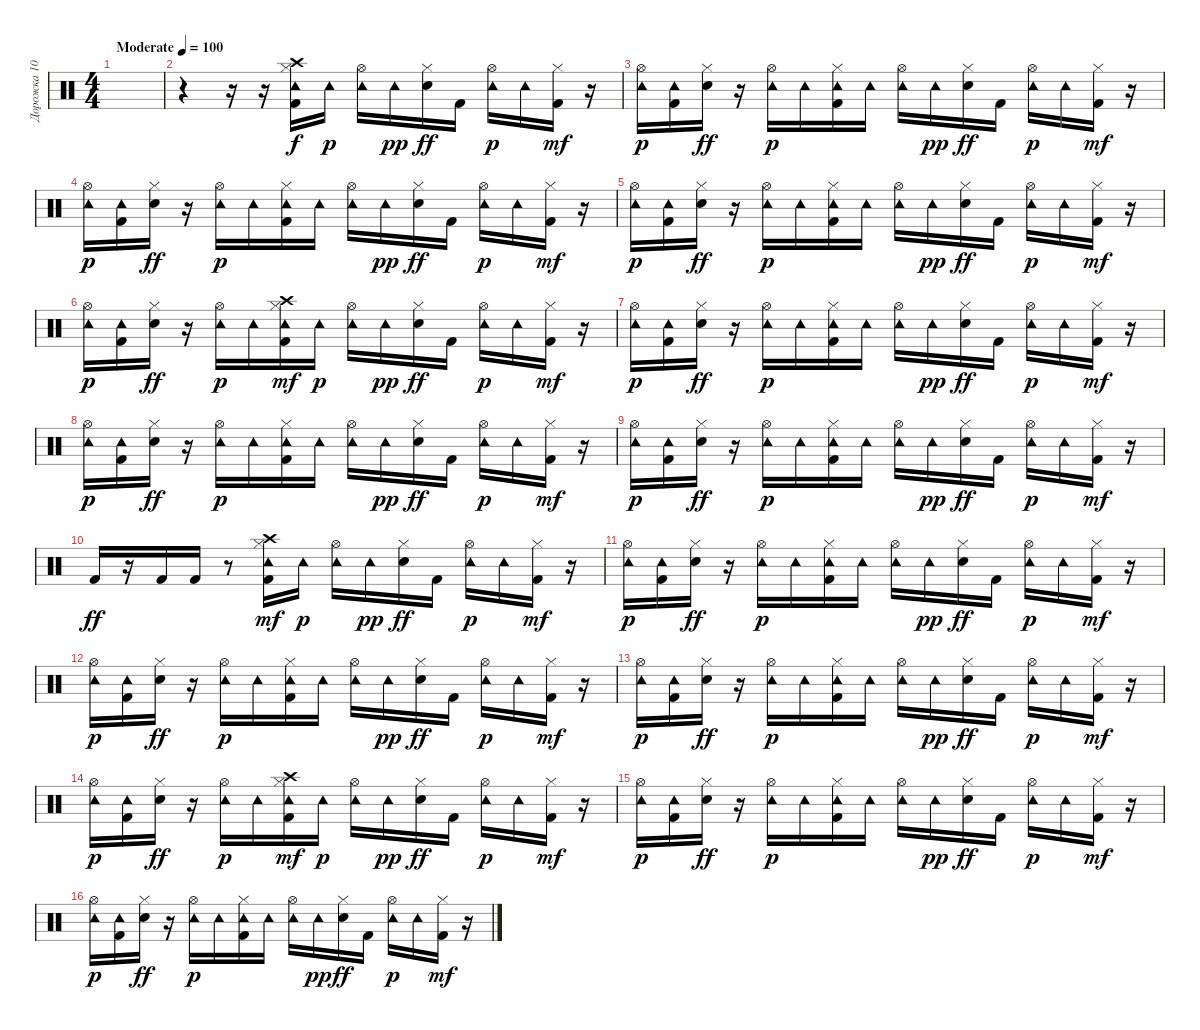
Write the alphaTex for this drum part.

\track ("Дорожка 10" "Дорожка 10") {instrument percussion}
\staff {score}
\articulation defaults
\ts (4 4)
\tempo (100 "Moderate")
\clef neutral
\ks c
|
r.4 r.16 r.16 ("Kick (hit) 2" "Hi-Hat (closed)" "Tambourine (hit)" "Crash high (hit)").16 "Tambourine (hit)".16{dy p} ("Hi-Hat (open)" "Tambourine (hit)").16 "Tambourine (hit)".16{dy pp} ("Hi-Hat (closed)" "Snare (hit) 2").16{dy ff} "Kick (hit) 2".16 ("Hi-Hat (open)" "Tambourine (hit)").16{dy p} "Tambourine (hit)".16 ("Kick (hit) 2" "Hi-Hat (closed)").16{dy mf} r.16 |
("Hi-Hat (open)" "Tambourine (hit)").16{dy p} ("Kick (hit) 2" "Tambourine (hit)").16 ("Hi-Hat (closed)" "Snare (hit) 2").16{dy ff} r.16 ("Hi-Hat (open)" "Tambourine (hit)").16{dy p} "Tambourine (hit)".16 ("Kick (hit) 2" "Hi-Hat (closed)" "Tambourine (hit)").16 "Tambourine (hit)".16 ("Hi-Hat (open)" "Tambourine (hit)").16 "Tambourine (hit)".16{dy pp} ("Hi-Hat (closed)" "Snare (hit) 2").16{dy ff} "Kick (hit) 2".16 ("Hi-Hat (open)" "Tambourine (hit)").16{dy p} "Tambourine (hit)".16 ("Kick (hit) 2" "Hi-Hat (closed)").16{dy mf} r.16 |
("Hi-Hat (open)" "Tambourine (hit)").16{dy p} ("Kick (hit) 2" "Tambourine (hit)").16 ("Hi-Hat (closed)" "Snare (hit) 2").16{dy ff} r.16 ("Hi-Hat (open)" "Tambourine (hit)").16{dy p} "Tambourine (hit)".16 ("Kick (hit) 2" "Hi-Hat (closed)" "Tambourine (hit)").16 "Tambourine (hit)".16 ("Hi-Hat (open)" "Tambourine (hit)").16 "Tambourine (hit)".16{dy pp} ("Hi-Hat (closed)" "Snare (hit) 2").16{dy ff} "Kick (hit) 2".16 ("Hi-Hat (open)" "Tambourine (hit)").16{dy p} "Tambourine (hit)".16 ("Kick (hit) 2" "Hi-Hat (closed)").16{dy mf} r.16 |
("Hi-Hat (open)" "Tambourine (hit)").16{dy p} ("Kick (hit) 2" "Tambourine (hit)").16 ("Hi-Hat (closed)" "Snare (hit) 2").16{dy ff} r.16 ("Hi-Hat (open)" "Tambourine (hit)").16{dy p} "Tambourine (hit)".16 ("Kick (hit) 2" "Hi-Hat (closed)" "Tambourine (hit)").16 "Tambourine (hit)".16 ("Hi-Hat (open)" "Tambourine (hit)").16 "Tambourine (hit)".16{dy pp} ("Hi-Hat (closed)" "Snare (hit) 2").16{dy ff} "Kick (hit) 2".16 ("Hi-Hat (open)" "Tambourine (hit)").16{dy p} "Tambourine (hit)".16 ("Kick (hit) 2" "Hi-Hat (closed)").16{dy mf} r.16 |
("Hi-Hat (open)" "Tambourine (hit)").16{dy p} ("Kick (hit) 2" "Tambourine (hit)").16 ("Hi-Hat (closed)" "Snare (hit) 2").16{dy ff} r.16 ("Hi-Hat (open)" "Tambourine (hit)").16{dy p} "Tambourine (hit)".16 ("Kick (hit) 2" "Hi-Hat (closed)" "Tambourine (hit)" "Crash high (hit)").16{dy mf} "Tambourine (hit)".16{dy p} ("Hi-Hat (open)" "Tambourine (hit)").16 "Tambourine (hit)".16{dy pp} ("Hi-Hat (closed)" "Snare (hit) 2").16{dy ff} "Kick (hit) 2".16 ("Hi-Hat (open)" "Tambourine (hit)").16{dy p} "Tambourine (hit)".16 ("Kick (hit) 2" "Hi-Hat (closed)").16{dy mf} r.16 |
("Hi-Hat (open)" "Tambourine (hit)").16{dy p} ("Kick (hit) 2" "Tambourine (hit)").16 ("Hi-Hat (closed)" "Snare (hit) 2").16{dy ff} r.16 ("Hi-Hat (open)" "Tambourine (hit)").16{dy p} "Tambourine (hit)".16 ("Kick (hit) 2" "Hi-Hat (closed)" "Tambourine (hit)").16 "Tambourine (hit)".16 ("Hi-Hat (open)" "Tambourine (hit)").16 "Tambourine (hit)".16{dy pp} ("Hi-Hat (closed)" "Snare (hit) 2").16{dy ff} "Kick (hit) 2".16 ("Hi-Hat (open)" "Tambourine (hit)").16{dy p} "Tambourine (hit)".16 ("Kick (hit) 2" "Hi-Hat (closed)").16{dy mf} r.16 |
("Hi-Hat (open)" "Tambourine (hit)").16{dy p} ("Kick (hit) 2" "Tambourine (hit)").16 ("Hi-Hat (closed)" "Snare (hit) 2").16{dy ff} r.16 ("Hi-Hat (open)" "Tambourine (hit)").16{dy p} "Tambourine (hit)".16 ("Kick (hit) 2" "Hi-Hat (closed)" "Tambourine (hit)").16 "Tambourine (hit)".16 ("Hi-Hat (open)" "Tambourine (hit)").16 "Tambourine (hit)".16{dy pp} ("Hi-Hat (closed)" "Snare (hit) 2").16{dy ff} "Kick (hit) 2".16 ("Hi-Hat (open)" "Tambourine (hit)").16{dy p} "Tambourine (hit)".16 ("Kick (hit) 2" "Hi-Hat (closed)").16{dy mf} r.16 |
("Hi-Hat (open)" "Tambourine (hit)").16{dy p} ("Kick (hit) 2" "Tambourine (hit)").16 ("Hi-Hat (closed)" "Snare (hit) 2").16{dy ff} r.16 ("Hi-Hat (open)" "Tambourine (hit)").16{dy p} "Tambourine (hit)".16 ("Kick (hit) 2" "Hi-Hat (closed)" "Tambourine (hit)").16 "Tambourine (hit)".16 ("Hi-Hat (open)" "Tambourine (hit)").16 "Tambourine (hit)".16{dy pp} ("Hi-Hat (closed)" "Snare (hit) 2").16{dy ff} "Kick (hit) 2".16 ("Hi-Hat (open)" "Tambourine (hit)").16{dy p} "Tambourine (hit)".16 ("Kick (hit) 2" "Hi-Hat (closed)").16{dy mf} r.16 |
"Kick (hit) 2".16{dy ff} r.16 "Kick (hit) 2".16 "Kick (hit) 2".16 r.8 ("Kick (hit) 2" "Hi-Hat (closed)" "Tambourine (hit)" "Crash high (hit)").16{dy mf} "Tambourine (hit)".16{dy p} ("Hi-Hat (open)" "Tambourine (hit)").16 "Tambourine (hit)".16{dy pp} ("Hi-Hat (closed)" "Snare (hit) 2").16{dy ff} "Kick (hit) 2".16 ("Hi-Hat (open)" "Tambourine (hit)").16{dy p} "Tambourine (hit)".16 ("Kick (hit) 2" "Hi-Hat (closed)").16{dy mf} r.16 |
("Hi-Hat (open)" "Tambourine (hit)").16{dy p} ("Kick (hit) 2" "Tambourine (hit)").16 ("Hi-Hat (closed)" "Snare (hit) 2").16{dy ff} r.16 ("Hi-Hat (open)" "Tambourine (hit)").16{dy p} "Tambourine (hit)".16 ("Kick (hit) 2" "Hi-Hat (closed)" "Tambourine (hit)").16 "Tambourine (hit)".16 ("Hi-Hat (open)" "Tambourine (hit)").16 "Tambourine (hit)".16{dy pp} ("Hi-Hat (closed)" "Snare (hit) 2").16{dy ff} "Kick (hit) 2".16 ("Hi-Hat (open)" "Tambourine (hit)").16{dy p} "Tambourine (hit)".16 ("Kick (hit) 2" "Hi-Hat (closed)").16{dy mf} r.16 |
("Hi-Hat (open)" "Tambourine (hit)").16{dy p} ("Kick (hit) 2" "Tambourine (hit)").16 ("Hi-Hat (closed)" "Snare (hit) 2").16{dy ff} r.16 ("Hi-Hat (open)" "Tambourine (hit)").16{dy p} "Tambourine (hit)".16 ("Kick (hit) 2" "Hi-Hat (closed)" "Tambourine (hit)").16 "Tambourine (hit)".16 ("Hi-Hat (open)" "Tambourine (hit)").16 "Tambourine (hit)".16{dy pp} ("Hi-Hat (closed)" "Snare (hit) 2").16{dy ff} "Kick (hit) 2".16 ("Hi-Hat (open)" "Tambourine (hit)").16{dy p} "Tambourine (hit)".16 ("Kick (hit) 2" "Hi-Hat (closed)").16{dy mf} r.16 |
("Hi-Hat (open)" "Tambourine (hit)").16{dy p} ("Kick (hit) 2" "Tambourine (hit)").16 ("Hi-Hat (closed)" "Snare (hit) 2").16{dy ff} r.16 ("Hi-Hat (open)" "Tambourine (hit)").16{dy p} "Tambourine (hit)".16 ("Kick (hit) 2" "Hi-Hat (closed)" "Tambourine (hit)").16 "Tambourine (hit)".16 ("Hi-Hat (open)" "Tambourine (hit)").16 "Tambourine (hit)".16{dy pp} ("Hi-Hat (closed)" "Snare (hit) 2").16{dy ff} "Kick (hit) 2".16 ("Hi-Hat (open)" "Tambourine (hit)").16{dy p} "Tambourine (hit)".16 ("Kick (hit) 2" "Hi-Hat (closed)").16{dy mf} r.16 |
("Hi-Hat (open)" "Tambourine (hit)").16{dy p} ("Kick (hit) 2" "Tambourine (hit)").16 ("Hi-Hat (closed)" "Snare (hit) 2").16{dy ff} r.16 ("Hi-Hat (open)" "Tambourine (hit)").16{dy p} "Tambourine (hit)".16 ("Kick (hit) 2" "Hi-Hat (closed)" "Tambourine (hit)" "Crash high (hit)").16{dy mf} "Tambourine (hit)".16{dy p} ("Hi-Hat (open)" "Tambourine (hit)").16 "Tambourine (hit)".16{dy pp} ("Hi-Hat (closed)" "Snare (hit) 2").16{dy ff} "Kick (hit) 2".16 ("Hi-Hat (open)" "Tambourine (hit)").16{dy p} "Tambourine (hit)".16 ("Kick (hit) 2" "Hi-Hat (closed)").16{dy mf} r.16 |
("Hi-Hat (open)" "Tambourine (hit)").16{dy p} ("Kick (hit) 2" "Tambourine (hit)").16 ("Hi-Hat (closed)" "Snare (hit) 2").16{dy ff} r.16 ("Hi-Hat (open)" "Tambourine (hit)").16{dy p} "Tambourine (hit)".16 ("Kick (hit) 2" "Hi-Hat (closed)" "Tambourine (hit)").16 "Tambourine (hit)".16 ("Hi-Hat (open)" "Tambourine (hit)").16 "Tambourine (hit)".16{dy pp} ("Hi-Hat (closed)" "Snare (hit) 2").16{dy ff} "Kick (hit) 2".16 ("Hi-Hat (open)" "Tambourine (hit)").16{dy p} "Tambourine (hit)".16 ("Kick (hit) 2" "Hi-Hat (closed)").16{dy mf} r.16 |
("Hi-Hat (open)" "Tambourine (hit)").16{dy p} ("Kick (hit) 2" "Tambourine (hit)").16 ("Hi-Hat (closed)" "Snare (hit) 2").16{dy ff} r.16 ("Hi-Hat (open)" "Tambourine (hit)").16{dy p} "Tambourine (hit)".16 ("Kick (hit) 2" "Hi-Hat (closed)" "Tambourine (hit)").16 "Tambourine (hit)".16 ("Hi-Hat (open)" "Tambourine (hit)").16 "Tambourine (hit)".16{dy pp} ("Hi-Hat (closed)" "Snare (hit) 2").16{dy ff} "Kick (hit) 2".16 ("Hi-Hat (open)" "Tambourine (hit)").16{dy p} "Tambourine (hit)".16 ("Kick (hit) 2" "Hi-Hat (closed)").16{dy mf} r.16
